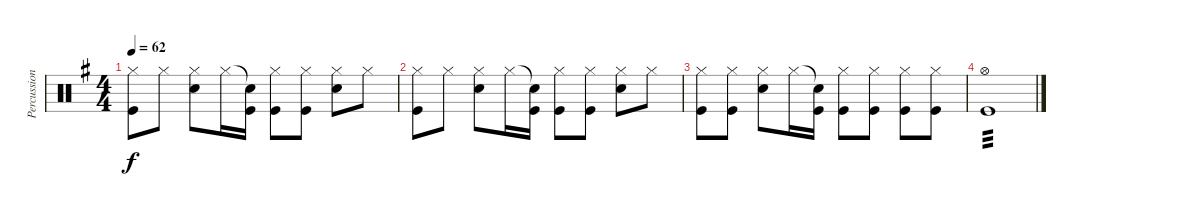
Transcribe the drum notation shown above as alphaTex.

\track ("Percussions" "Percussion") {instrument percussion}
\staff {score}
\articulation defaults
\ts (4 4)
\tempo 62
\clef neutral
\ks g
("Hi-Hat (closed)" "Kick (hit)").8{dy f} "Hi-Hat (closed)".8 ("Hi-Hat (closed)" "Snare (hit) 2").8 "Hi-Hat (closed)".16 ("Snare (hit)"{t} "Kick (hit)").16 ("Hi-Hat (closed)" "Kick (hit)").8 ("Hi-Hat (closed)" "Kick (hit)").8 ("Hi-Hat (closed)" "Snare (hit) 2").8 "Hi-Hat (closed)".8 |
("Hi-Hat (closed)" "Kick (hit)").8 "Hi-Hat (closed)".8 ("Hi-Hat (closed)" "Snare (hit) 2").8 "Hi-Hat (closed)".16 ("Snare (hit)"{t} "Kick (hit)").16 ("Hi-Hat (closed)" "Kick (hit)").8 ("Hi-Hat (closed)" "Kick (hit)").8 ("Hi-Hat (closed)" "Snare (hit) 2").8 "Hi-Hat (closed)".8 |
("Hi-Hat (closed)" "Kick (hit)").8 ("Hi-Hat (closed)" "Kick (hit)").8 ("Hi-Hat (closed)" "Snare (hit) 2").8 "Hi-Hat (closed)".16 ("Snare (hit)"{t} "Kick (hit)").16 ("Hi-Hat (closed)" "Kick (hit)").8 ("Hi-Hat (closed)" "Kick (hit)").8 ("Hi-Hat (closed)" "Kick (hit)").8 ("Hi-Hat (closed)" "Kick (hit)").8 |
("Hi-Hat (open)" "Kick (hit)").1{tp 3}
